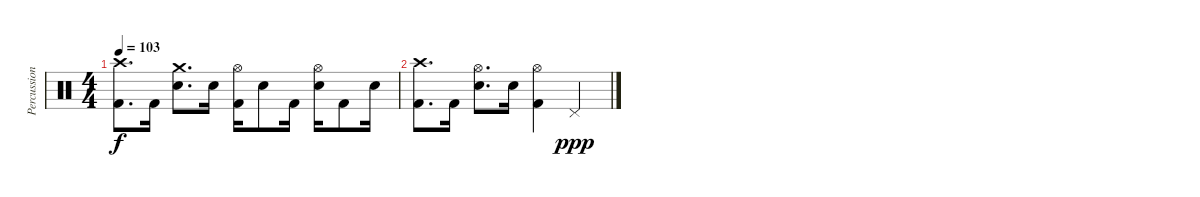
\track ("Percussions" "Percussion") {instrument percussion}
\staff {score}
\articulation defaults
\ts (4 4)
\tempo 103
\clef neutral
\ks c
("Crash high (hit)" "Kick (hit) 2").8{d dy f} "Kick (hit) 2".16 ("Crash medium (hit)" "Electric Snare (hit)").8{d} "Electric Snare (hit)".16 ("Hi-Hat (open)" "Kick (hit) 2").16 "Electric Snare (hit)".8 "Kick (hit) 2".16 ("Hi-Hat (open)" "Electric Snare (hit)").16 "Kick (hit) 2".8 "Electric Snare (hit)".16 |
("Crash high (hit)" "Kick (hit) 2").8{d} "Kick (hit) 2".16 ("Hi-Hat (open)" "Electric Snare (hit)").8{d} "Electric Snare (hit)".16 ("Hi-Hat (open)" "Kick (hit) 2").4 "Pedal Hi-Hat (hit)".4{dy ppp}
